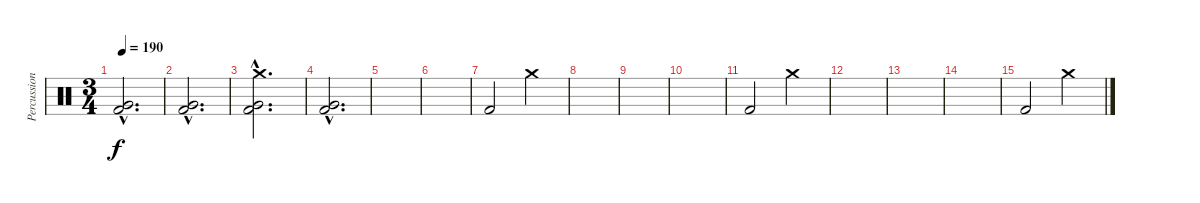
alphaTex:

\track ("Percussion" "Percussion") {instrument percussion}
\staff {score}
\articulation defaults
\ts (3 4)
\tempo 190
\clef neutral
\ks c
("Very Low Tom (hit)"{hac} "Kick (hit) 2"{hac}).2{d dy f} |
("Very Low Tom (hit)"{hac} "Kick (hit) 2"{hac}).2{d} |
("Crash medium (hit)"{hac} "Very Low Tom (hit)"{hac} "Kick (hit) 2"{hac}).2{d} |
("Very Low Tom (hit)"{hac} "Kick (hit) 2"{hac}).2{d} |
|
|
"Kick (hit) 2".2 "Crash medium (hit)".4 |
|
|
|
"Kick (hit) 2".2 "Crash medium (hit)".4 |
|
|
|
"Kick (hit) 2".2 "Crash medium (hit)".4
